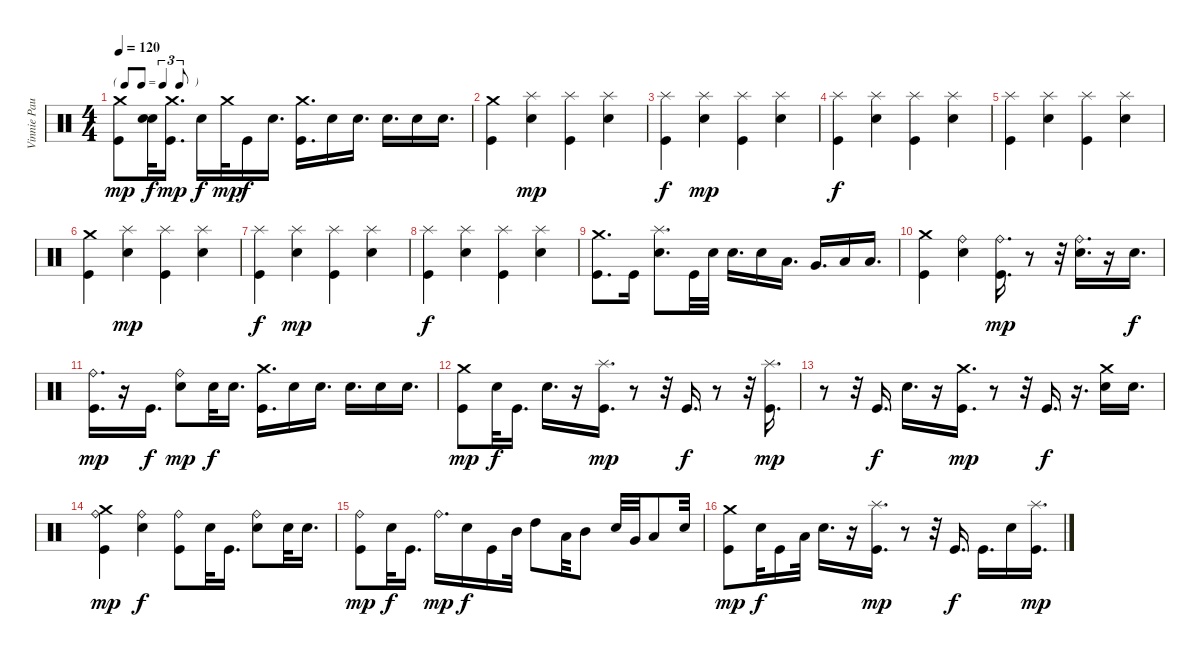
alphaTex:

\track ("Vinnie Paul" "Vinnie Pau") {instrument percussion}
\staff {score}
\articulation defaults
\ts (4 4)
\tf triplet8th
\tempo 120
\clef neutral
\ks c
("Crash medium (hit)" "Kick (hit)").8{dy mp} ("Snare (hit)" "Snare (hit)").32{dy f} ("Crash medium (hit)" "Kick (hit)").16{d dy mp} "Snare (hit) 2".16{dy f} "Crash medium (hit)".32{dy mp} "Kick (hit)".16{dy f} "Snare (hit) 2".16{d} ("Kick (hit)" "Crash medium (hit)").16{d} "Snare (hit) 2".16 "Snare (hit) 2".16{d} "Snare (hit) 2".16{d} "Snare (hit) 2".16 "Snare (hit) 2".16{d} |
("Kick (hit)" "Crash medium (hit)").4 ("Splash (hit)" "Snare (hit) 2").4{dy mp} ("Splash (hit)" "Kick (hit)").4 ("Splash (hit)" "Snare (hit) 2").4 |
("Kick (hit)" "Splash (hit)").4{dy f} ("Splash (hit)" "Snare (hit) 2").4{dy mp} ("Splash (hit)" "Kick (hit)").4 ("Splash (hit)" "Snare (hit) 2").4 |
("Kick (hit)" "Splash (hit)").4{dy f} ("Snare (hit) 2" "Splash (hit)").4 ("Kick (hit)" "Splash (hit)").4 ("Snare (hit) 2" "Splash (hit)").4 |
("Kick (hit)" "Splash (hit)").4 ("Snare (hit) 2" "Splash (hit)").4 ("Kick (hit)" "Splash (hit)").4 ("Snare (hit) 2" "Splash (hit)").4 |
("Kick (hit)" "Crash medium (hit)").4 ("Splash (hit)" "Snare (hit) 2").4{dy mp} ("Splash (hit)" "Kick (hit)").4 ("Splash (hit)" "Snare (hit) 2").4 |
("Kick (hit)" "Splash (hit)").4{dy f} ("Splash (hit)" "Snare (hit) 2").4{dy mp} ("Splash (hit)" "Kick (hit)").4 ("Splash (hit)" "Snare (hit) 2").4 |
("Kick (hit)" "Splash (hit)").4{dy f} ("Snare (hit) 2" "Splash (hit)").4 ("Kick (hit)" "Splash (hit)").4 ("Snare (hit) 2" "Splash (hit)").4 |
("Kick (hit)" "Crash medium (hit)").8{d} "Kick (hit)".16 ("Snare (hit) 2" "Splash (hit)").8{d} "Kick (hit)".32 "Snare (hit) 2".32 "Snare (hit) 2".16{d} "Snare (hit) 2".16 "Low Tom (hit)".16{d} "Very Low Tom (hit)".16{d} "Low Floor Tom (hit)".16 "Low Floor Tom (hit)".16{d} |
("Kick (hit)" "Crash medium (hit)").4 ("Snare (hit) 2" "Ride (bell)").4 ("Ride (bell)" "Kick (hit)").16{d dy mp} r.8 r.32 ("Ride (bell)" "Snare (hit) 2").16{d} r.16 "Snare (hit) 2".16{d dy f} |
("Ride (bell)" "Kick (hit)").16{d dy mp} r.16 "Kick (hit)".16{d dy f} ("Ride (bell)" "Snare (hit) 2").8{dy mp} "Snare (hit)".32{dy f} "Snare (hit) 2".16{d} ("Kick (hit)" "Crash medium (hit)").16{d} "Snare (hit) 2".16 "Snare (hit) 2".16{d} "Snare (hit) 2".16{d} "Snare (hit) 2".16 "Snare (hit) 2".16{d} |
("Crash medium (hit)" "Kick (hit)").8{dy mp} "Snare (hit)".32{dy f} "Kick (hit)".16{d} "Snare (hit) 2".16{d} r.16 ("Splash (hit)" "Kick (hit)").16{d dy mp} r.8 r.32 "Kick (hit)".16{d dy f} r.8 r.32 ("Splash (hit)" "Kick (hit)").16{d dy mp} |
r.8 r.32 "Kick (hit)".16{d dy f} "Snare (hit) 2".16{d} r.16 ("Crash medium (hit)" "Kick (hit)").16{d dy mp} r.8 r.32 "Kick (hit)".16{d dy f} r.16{d} ("Snare (hit) 2" "Crash medium (hit)").16 "Snare (hit) 2".16{d} |
("Crash medium (hit)" "Kick (hit)" "Ride (bell)").4{dy mp} ("Snare (hit) 2" "Ride (bell)").4{dy f} ("Kick (hit)" "Ride (bell)").8 "Snare (hit)".32 "Kick (hit)".16{d} ("Snare (hit) 2" "Ride (bell)").8 "Snare (hit)".32 "Snare (hit) 2".16{d} |
("Ride (bell)" "Kick (hit)").8{dy mp} "Snare (hit)".32{dy f} "Kick (hit)".16{d} "Ride (bell)".16{d dy mp} "Snare (hit) 2".16{dy f} "Kick (hit)".16 "Mid Tom (hit)".32 "High Tom (hit)".8 "Low Tom (hit)".32 "Mid Tom (hit)".8 "Snare (hit)".32 "Very Low Tom (hit)".32 "Low Tom (hit)".8 "Snare (hit)".32 |
("Crash medium (hit)" "Kick (hit)").8{dy mp} "Snare (hit)".32{dy f} "Kick (hit)".16 "Low Floor Tom (hit)".32 "Snare (hit) 2".16{d} r.16 ("Splash (hit)" "Kick (hit)").16{d dy mp} r.8 r.32 "Kick (hit)".16{d dy f} "Kick (hit)".16{d} "Snare (hit) 2".16 ("Splash (hit)" "Kick (hit)").16{d dy mp}
